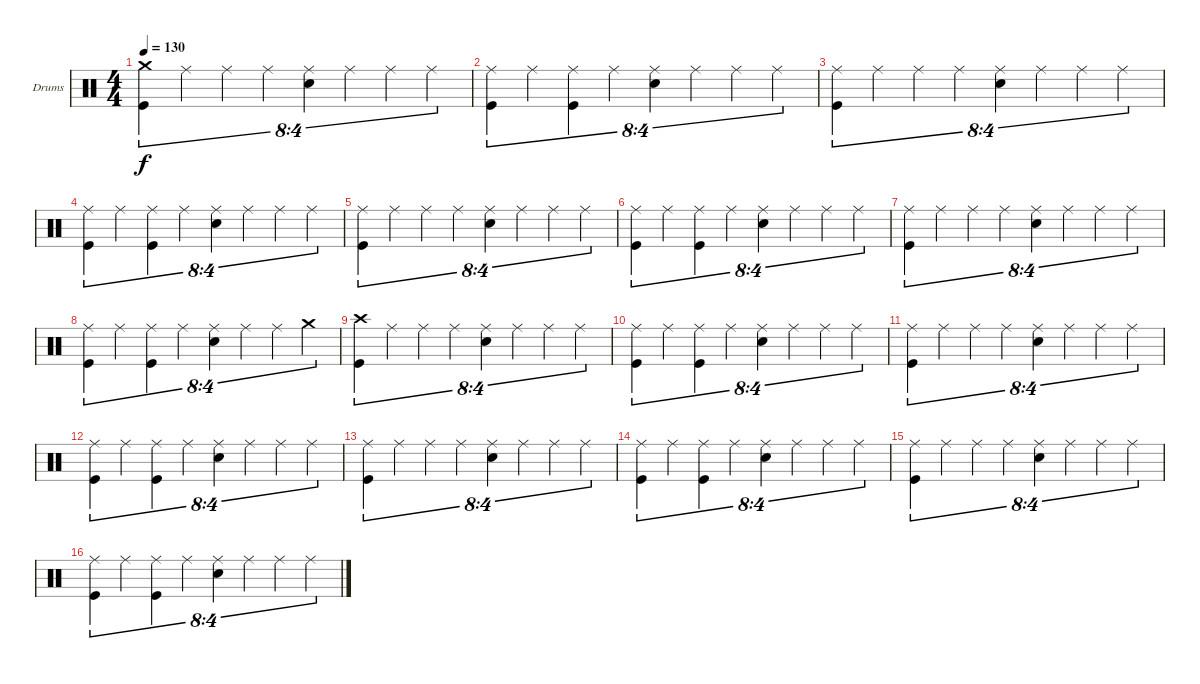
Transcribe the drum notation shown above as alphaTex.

\defaultSystemsLayout 4
\bracketExtendMode groupsimilarinstruments
\firstSystemTrackNameOrientation horizontal
\otherSystemsTrackNameOrientation horizontal
\track ("Drumkit" "Drums") {instrument percussion}
\staff {score}
\articulation defaults
\ts (4 4)
\tempo 130
\clef neutral
\ks c
("Kick (hit)" "Crash medium (hit)").4{tu (8 4) dy f} "Ride (middle)".4{tu (8 4)} "Ride (middle)".4{tu (8 4)} "Ride (middle)".4{tu (8 4)} ("Snare (hit) 2" "Ride (middle)").4{tu (8 4)} "Ride (middle)".4{tu (8 4)} "Ride (middle)".4{tu (8 4)} "Ride (middle)".4{tu (8 4)} |
("Ride (middle)" "Kick (hit)").4{tu (8 4)} "Ride (middle)".4{tu (8 4)} ("Ride (middle)" "Kick (hit)").4{tu (8 4)} "Ride (middle)".4{tu (8 4)} ("Ride (middle)" "Snare (hit) 2").4{tu (8 4)} "Ride (middle)".4{tu (8 4)} "Ride (middle)".4{tu (8 4)} "Ride (middle)".4{tu (8 4)} |
("Ride (middle)" "Kick (hit)").4{tu (8 4)} "Ride (middle)".4{tu (8 4)} "Ride (middle)".4{tu (8 4)} "Ride (middle)".4{tu (8 4)} ("Ride (middle)" "Snare (hit) 2").4{tu (8 4)} "Ride (middle)".4{tu (8 4)} "Ride (middle)".4{tu (8 4)} "Ride (middle)".4{tu (8 4)} |
("Ride (middle)" "Kick (hit)").4{tu (8 4)} "Ride (middle)".4{tu (8 4)} ("Ride (middle)" "Kick (hit)").4{tu (8 4)} "Ride (middle)".4{tu (8 4)} ("Ride (middle)" "Snare (hit) 2").4{tu (8 4)} "Ride (middle)".4{tu (8 4)} "Ride (middle)".4{tu (8 4)} "Ride (middle)".4{tu (8 4)} |
("Ride (middle)" "Kick (hit)").4{tu (8 4)} "Ride (middle)".4{tu (8 4)} "Ride (middle)".4{tu (8 4)} "Ride (middle)".4{tu (8 4)} ("Ride (middle)" "Snare (hit) 2").4{tu (8 4)} "Ride (middle)".4{tu (8 4)} "Ride (middle)".4{tu (8 4)} "Ride (middle)".4{tu (8 4)} |
("Ride (middle)" "Kick (hit)").4{tu (8 4)} "Ride (middle)".4{tu (8 4)} ("Ride (middle)" "Kick (hit)").4{tu (8 4)} "Ride (middle)".4{tu (8 4)} ("Ride (middle)" "Snare (hit) 2").4{tu (8 4)} "Ride (middle)".4{tu (8 4)} "Ride (middle)".4{tu (8 4)} "Ride (middle)".4{tu (8 4)} |
("Ride (middle)" "Kick (hit)").4{tu (8 4)} "Ride (middle)".4{tu (8 4)} "Ride (middle)".4{tu (8 4)} "Ride (middle)".4{tu (8 4)} ("Ride (middle)" "Snare (hit) 2").4{tu (8 4)} "Ride (middle)".4{tu (8 4)} "Ride (middle)".4{tu (8 4)} "Ride (middle)".4{tu (8 4)} |
("Ride (middle)" "Kick (hit)").4{tu (8 4)} "Ride (middle)".4{tu (8 4)} ("Ride (middle)" "Kick (hit)").4{tu (8 4)} "Ride (middle)".4{tu (8 4)} ("Ride (middle)" "Snare (hit) 2").4{tu (8 4)} "Ride (middle)".4{tu (8 4)} "Ride (middle)".4{tu (8 4)} "Crash medium (hit)".4{tu (8 4)} |
("Crash high (hit)" "Kick (hit)").4{tu (8 4)} "Ride (middle)".4{tu (8 4)} "Ride (middle)".4{tu (8 4)} "Ride (middle)".4{tu (8 4)} ("Ride (middle)" "Snare (hit) 2").4{tu (8 4)} "Ride (middle)".4{tu (8 4)} "Ride (middle)".4{tu (8 4)} "Ride (middle)".4{tu (8 4)} |
("Ride (middle)" "Kick (hit)").4{tu (8 4)} "Ride (middle)".4{tu (8 4)} ("Ride (middle)" "Kick (hit)").4{tu (8 4)} "Ride (middle)".4{tu (8 4)} ("Ride (middle)" "Snare (hit) 2").4{tu (8 4)} "Ride (middle)".4{tu (8 4)} "Ride (middle)".4{tu (8 4)} "Ride (middle)".4{tu (8 4)} |
("Ride (middle)" "Kick (hit)").4{tu (8 4)} "Ride (middle)".4{tu (8 4)} "Ride (middle)".4{tu (8 4)} "Ride (middle)".4{tu (8 4)} ("Ride (middle)" "Snare (hit) 2").4{tu (8 4)} "Ride (middle)".4{tu (8 4)} "Ride (middle)".4{tu (8 4)} "Ride (middle)".4{tu (8 4)} |
("Ride (middle)" "Kick (hit)").4{tu (8 4)} "Ride (middle)".4{tu (8 4)} ("Ride (middle)" "Kick (hit)").4{tu (8 4)} "Ride (middle)".4{tu (8 4)} ("Ride (middle)" "Snare (hit) 2").4{tu (8 4)} "Ride (middle)".4{tu (8 4)} "Ride (middle)".4{tu (8 4)} "Ride (middle)".4{tu (8 4)} |
("Ride (middle)" "Kick (hit)").4{tu (8 4)} "Ride (middle)".4{tu (8 4)} "Ride (middle)".4{tu (8 4)} "Ride (middle)".4{tu (8 4)} ("Ride (middle)" "Snare (hit) 2").4{tu (8 4)} "Ride (middle)".4{tu (8 4)} "Ride (middle)".4{tu (8 4)} "Ride (middle)".4{tu (8 4)} |
("Ride (middle)" "Kick (hit)").4{tu (8 4)} "Ride (middle)".4{tu (8 4)} ("Ride (middle)" "Kick (hit)").4{tu (8 4)} "Ride (middle)".4{tu (8 4)} ("Ride (middle)" "Snare (hit) 2").4{tu (8 4)} "Ride (middle)".4{tu (8 4)} "Ride (middle)".4{tu (8 4)} "Ride (middle)".4{tu (8 4)} |
("Ride (middle)" "Kick (hit)").4{tu (8 4)} "Ride (middle)".4{tu (8 4)} "Ride (middle)".4{tu (8 4)} "Ride (middle)".4{tu (8 4)} ("Ride (middle)" "Snare (hit) 2").4{tu (8 4)} "Ride (middle)".4{tu (8 4)} "Ride (middle)".4{tu (8 4)} "Ride (middle)".4{tu (8 4)} |
("Ride (middle)" "Kick (hit)").4{tu (8 4)} "Ride (middle)".4{tu (8 4)} ("Ride (middle)" "Kick (hit)").4{tu (8 4)} "Ride (middle)".4{tu (8 4)} ("Ride (middle)" "Snare (hit) 2").4{tu (8 4)} "Ride (middle)".4{tu (8 4)} "Ride (middle)".4{tu (8 4)} "Ride (middle)".4{tu (8 4)}
